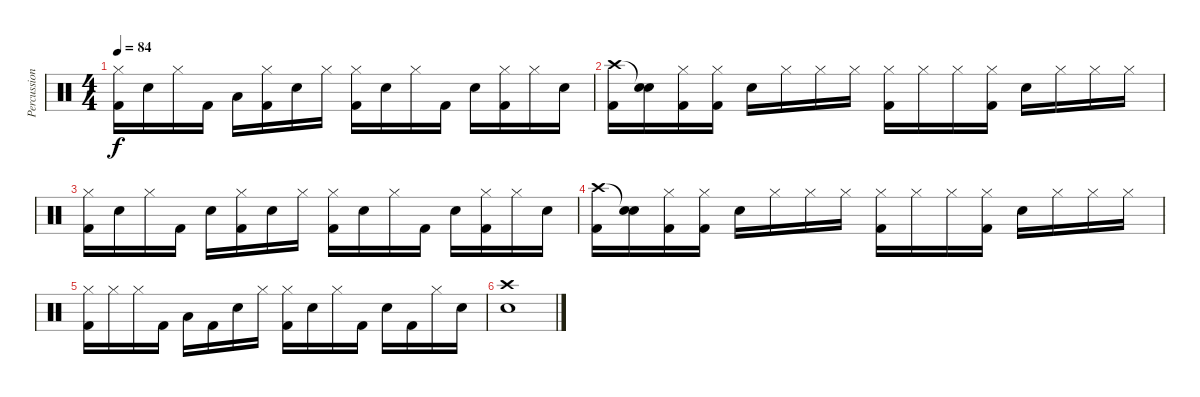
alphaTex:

\track ("Percussion" "Percussion") {instrument percussion}
\staff {score}
\articulation defaults
\ts (4 4)
\tempo 84
\clef neutral
\ks c
("Hi-Hat (closed)" "Kick (hit) 2").16{dy f} "Snare (hit) 2".16 "Hi-Hat (closed)".16 "Kick (hit) 2".16 "Low Floor Tom (hit)".16 ("Hi-Hat (closed)" "Kick (hit) 2").16 "Snare (hit) 2".16 "Hi-Hat (closed)".16 ("Hi-Hat (closed)" "Kick (hit) 2").16 "Snare (hit) 2".16 "Hi-Hat (closed)".16 "Kick (hit) 2".16 "Snare (hit) 2".16 ("Hi-Hat (closed)" "Kick (hit) 2").16 "Hi-Hat (closed)".16 "Snare (hit) 2".16 |
("Crash high (hit)" "Kick (hit) 2").16 ("Snare (hit)"{t} "Snare (hit) 2").16 ("Hi-Hat (closed)" "Kick (hit) 2").16 ("Hi-Hat (closed)" "Kick (hit) 2").16 "Snare (hit) 2".16 "Hi-Hat (closed)".16 "Hi-Hat (closed)".16 "Hi-Hat (closed)".16 ("Hi-Hat (closed)" "Kick (hit) 2").16 "Hi-Hat (closed)".16 "Hi-Hat (closed)".16 ("Hi-Hat (closed)" "Kick (hit) 2").16 "Snare (hit) 2".16 "Hi-Hat (closed)".16 "Hi-Hat (closed)".16 "Hi-Hat (closed)".16 |
("Hi-Hat (closed)" "Kick (hit) 2").16 "Snare (hit) 2".16 "Hi-Hat (closed)".16 "Kick (hit) 2".16 "Snare (hit) 2".16 ("Hi-Hat (closed)" "Kick (hit) 2").16 "Snare (hit) 2".16 "Hi-Hat (closed)".16 ("Hi-Hat (closed)" "Kick (hit) 2").16 "Snare (hit) 2".16 "Hi-Hat (closed)".16 "Kick (hit) 2".16 "Snare (hit) 2".16 ("Hi-Hat (closed)" "Kick (hit) 2").16 "Hi-Hat (closed)".16 "Snare (hit) 2".16 |
("Crash high (hit)" "Kick (hit) 2").16 ("Snare (hit)"{t} "Snare (hit) 2").16 ("Hi-Hat (closed)" "Kick (hit) 2").16 ("Hi-Hat (closed)" "Kick (hit) 2").16 "Snare (hit) 2".16 "Hi-Hat (closed)".16 "Hi-Hat (closed)".16 "Hi-Hat (closed)".16 ("Hi-Hat (closed)" "Kick (hit) 2").16 "Hi-Hat (closed)".16 "Hi-Hat (closed)".16 ("Hi-Hat (closed)" "Kick (hit) 2").16 "Snare (hit) 2".16 "Hi-Hat (closed)".16 "Hi-Hat (closed)".16 "Hi-Hat (closed)".16 |
("Hi-Hat (closed)" "Kick (hit) 2").16 "Hi-Hat (closed)".16 "Hi-Hat (closed)".16 "Kick (hit) 2".16 "Low Floor Tom (hit)".16 "Kick (hit) 2".16 "Snare (hit) 2".16 "Hi-Hat (closed)".16 ("Hi-Hat (closed)" "Kick (hit) 2").16 "Snare (hit) 2".16 "Hi-Hat (closed)".16 "Kick (hit) 2".16 "Snare (hit) 2".16 "Kick (hit) 2".16 "Hi-Hat (closed)".16 "Snare (hit) 2".16 |
("Crash high (hit)" "Snare (hit) 2").1
